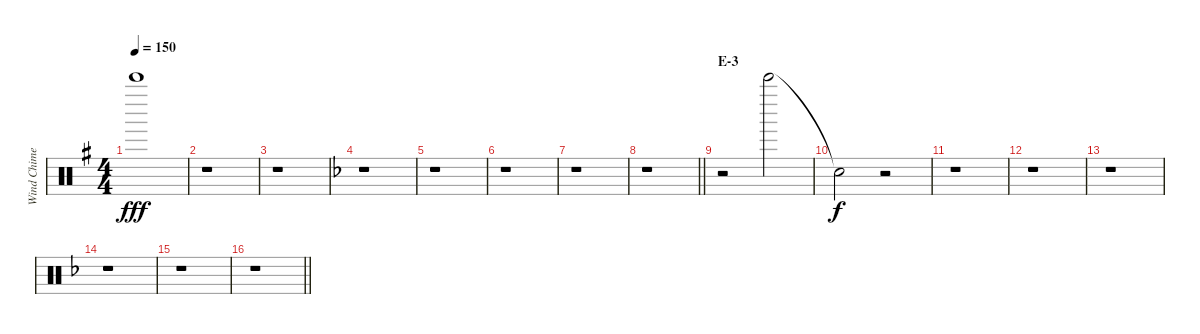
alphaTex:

\track ("Wind Chime" "Wind Chime") {instrument percussion}
\staff {score}
\articulation defaults
\ts (4 4)
\tempo 150
\clef neutral
\ks g "Bell Tree (hit)".1{dy fff}
|
r.1 |
r.1 |
\ks f
r.1 |
r.1 |
r.1 |
r.1 |
\barLineRight lightlight
r.1 |
\section ("" "E-3")
r.2 "Bell Tree (hit)".2 |
"Snare (hit)"{t}.2{dy f} r.2 |
r.1 |
r.1 |
r.1 |
r.1 |
r.1 |
\barLineRight lightlight
r.1
